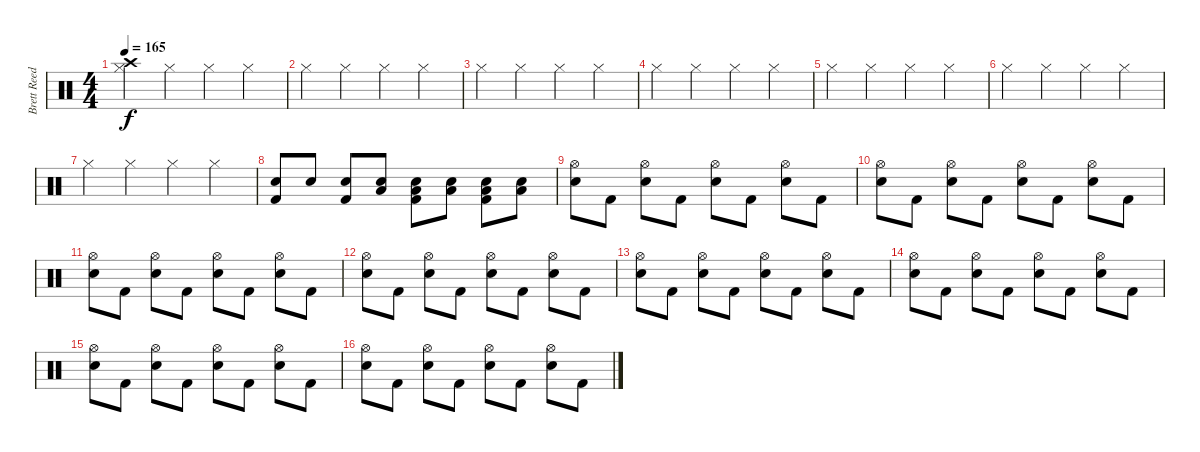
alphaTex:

\track ("Brett Reed - Drums" "Brett Reed") {instrument percussion}
\staff {score}
\articulation defaults
\ts (4 4)
\tempo 165
\clef neutral
\ks c
("Crash high (hit)" "Hi-Hat (closed)").4{dy f} "Hi-Hat (closed)".4 "Hi-Hat (closed)".4 "Hi-Hat (closed)".4 |
"Hi-Hat (closed)".4 "Hi-Hat (closed)".4 "Hi-Hat (closed)".4 "Hi-Hat (closed)".4 |
"Hi-Hat (closed)".4 "Hi-Hat (closed)".4 "Hi-Hat (closed)".4 "Hi-Hat (closed)".4 |
"Hi-Hat (closed)".4 "Hi-Hat (closed)".4 "Hi-Hat (closed)".4 "Hi-Hat (closed)".4 |
"Hi-Hat (closed)".4 "Hi-Hat (closed)".4 "Hi-Hat (closed)".4 "Hi-Hat (closed)".4 |
"Hi-Hat (closed)".4 "Hi-Hat (closed)".4 "Hi-Hat (closed)".4 "Hi-Hat (closed)".4 |
"Hi-Hat (closed)".4 "Hi-Hat (closed)".4 "Hi-Hat (closed)".4 "Hi-Hat (closed)".4 |
("Electric Snare (hit)" "Kick (hit) 2").8 "Electric Snare (hit)".8 ("Electric Snare (hit)" "Kick (hit) 2").8 ("Low Tom (hit)" "Electric Snare (hit)").8 ("Low Tom (hit)" "Electric Snare (hit)" "Kick (hit) 2").8 ("Low Tom (hit)" "Electric Snare (hit)").8 ("Low Tom (hit)" "Electric Snare (hit)" "Kick (hit) 2").8 ("Low Tom (hit)" "Electric Snare (hit)").8 |
("Hi-Hat (open)" "Electric Snare (hit)").8 "Kick (hit) 2".8 ("Hi-Hat (open)" "Electric Snare (hit)").8 "Kick (hit) 2".8 ("Hi-Hat (open)" "Electric Snare (hit)").8 "Kick (hit) 2".8 ("Hi-Hat (open)" "Electric Snare (hit)").8 "Kick (hit) 2".8 |
("Hi-Hat (open)" "Electric Snare (hit)").8 "Kick (hit) 2".8 ("Hi-Hat (open)" "Electric Snare (hit)").8 "Kick (hit) 2".8 ("Hi-Hat (open)" "Electric Snare (hit)").8 "Kick (hit) 2".8 ("Hi-Hat (open)" "Electric Snare (hit)").8 "Kick (hit) 2".8 |
("Hi-Hat (open)" "Electric Snare (hit)").8 "Kick (hit) 2".8 ("Hi-Hat (open)" "Electric Snare (hit)").8 "Kick (hit) 2".8 ("Hi-Hat (open)" "Electric Snare (hit)").8 "Kick (hit) 2".8 ("Hi-Hat (open)" "Electric Snare (hit)").8 "Kick (hit) 2".8 |
("Hi-Hat (open)" "Electric Snare (hit)").8 "Kick (hit) 2".8 ("Hi-Hat (open)" "Electric Snare (hit)").8 "Kick (hit) 2".8 ("Hi-Hat (open)" "Electric Snare (hit)").8 "Kick (hit) 2".8 ("Hi-Hat (open)" "Electric Snare (hit)").8 "Kick (hit) 2".8 |
("Hi-Hat (open)" "Electric Snare (hit)").8 "Kick (hit) 2".8 ("Hi-Hat (open)" "Electric Snare (hit)").8 "Kick (hit) 2".8 ("Hi-Hat (open)" "Electric Snare (hit)").8 "Kick (hit) 2".8 ("Hi-Hat (open)" "Electric Snare (hit)").8 "Kick (hit) 2".8 |
("Hi-Hat (open)" "Electric Snare (hit)").8 "Kick (hit) 2".8 ("Hi-Hat (open)" "Electric Snare (hit)").8 "Kick (hit) 2".8 ("Hi-Hat (open)" "Electric Snare (hit)").8 "Kick (hit) 2".8 ("Hi-Hat (open)" "Electric Snare (hit)").8 "Kick (hit) 2".8 |
("Hi-Hat (open)" "Electric Snare (hit)").8 "Kick (hit) 2".8 ("Hi-Hat (open)" "Electric Snare (hit)").8 "Kick (hit) 2".8 ("Hi-Hat (open)" "Electric Snare (hit)").8 "Kick (hit) 2".8 ("Hi-Hat (open)" "Electric Snare (hit)").8 "Kick (hit) 2".8 |
("Hi-Hat (open)" "Electric Snare (hit)").8 "Kick (hit) 2".8 ("Hi-Hat (open)" "Electric Snare (hit)").8 "Kick (hit) 2".8 ("Hi-Hat (open)" "Electric Snare (hit)").8 "Kick (hit) 2".8 ("Hi-Hat (open)" "Electric Snare (hit)").8 "Kick (hit) 2".8
